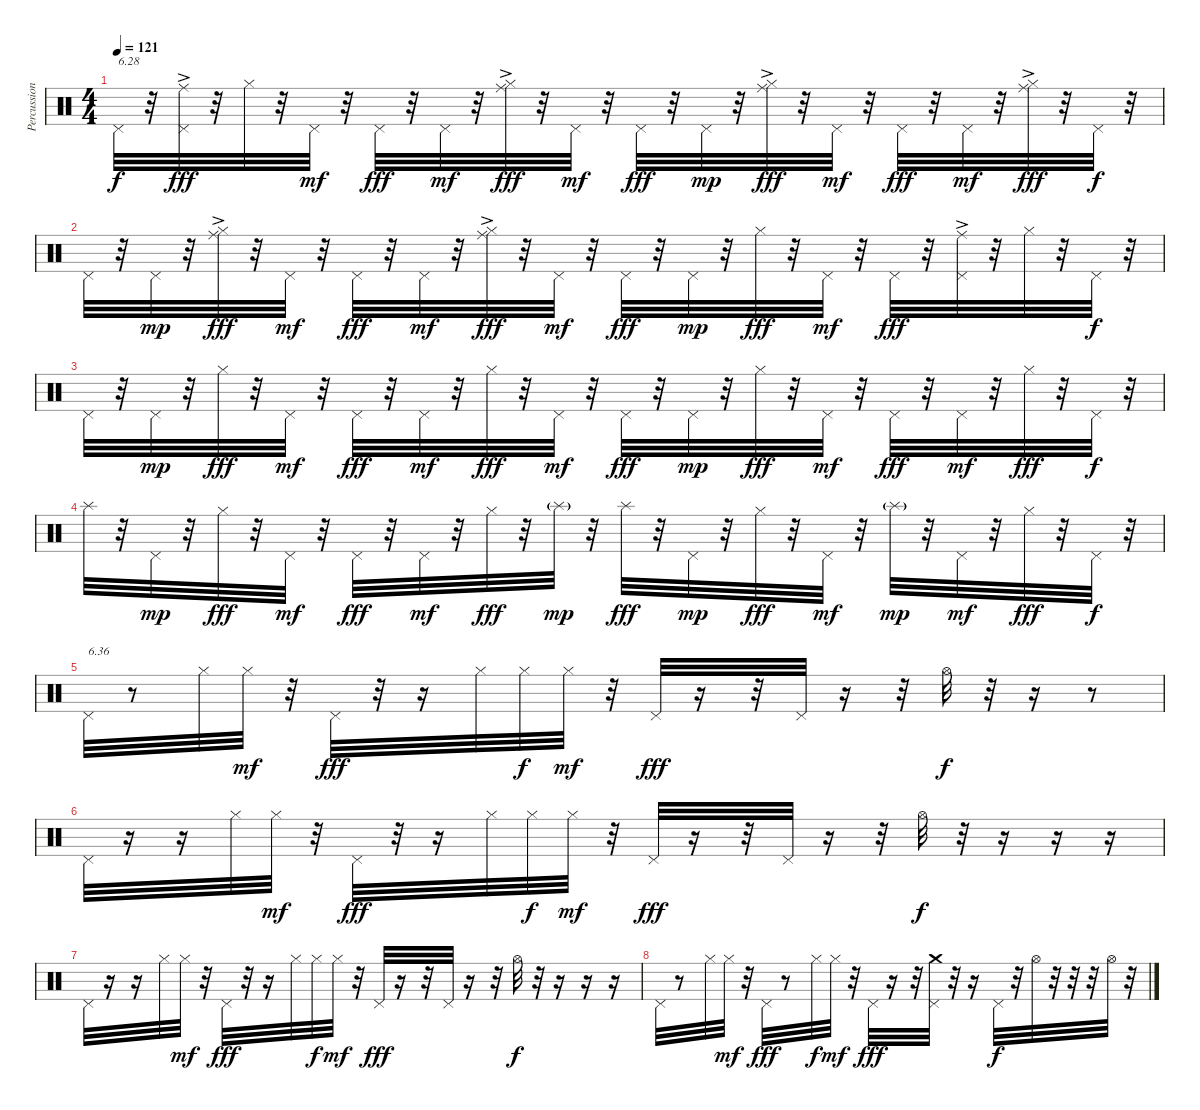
\track ("Percussions" "Percussion") {instrument percussion}
\staff {score}
\articulation defaults
\ts (4 4)
\tempo 121
\clef neutral
\ks c "Pedal Hi-Hat (hit)".32{txt "6.28" dy f}
r.32 ("Pedal Hi-Hat (hit)" "Ride (middle)"{ac}).32{dy fff} r.32 "Hi-Hat (closed)".32 r.32 "Pedal Hi-Hat (hit)".32{dy mf} r.32 "Pedal Hi-Hat (hit)".32{dy fff} r.32 "Pedal Hi-Hat (hit)".32{dy mf} r.32 ("Hi-Hat (closed)" "Ride (middle)"{ac}).32{dy fff} r.32 "Pedal Hi-Hat (hit)".32{dy mf} r.32 "Pedal Hi-Hat (hit)".32{dy fff} r.32 "Pedal Hi-Hat (hit)".32{dy mp} r.32 ("Hi-Hat (closed)" "Ride (middle)"{ac}).32{dy fff} r.32 "Pedal Hi-Hat (hit)".32{dy mf} r.32 "Pedal Hi-Hat (hit)".32{dy fff} r.32 "Pedal Hi-Hat (hit)".32{dy mf} r.32 ("Hi-Hat (closed)" "Ride (middle)"{ac}).32{dy fff} r.32 "Pedal Hi-Hat (hit)".32{dy f} r.32 |
"Pedal Hi-Hat (hit)".32 r.32 "Pedal Hi-Hat (hit)".32{dy mp} r.32 ("Hi-Hat (closed)" "Ride (middle)"{ac}).32{dy fff} r.32 "Pedal Hi-Hat (hit)".32{dy mf} r.32 "Pedal Hi-Hat (hit)".32{dy fff} r.32 "Pedal Hi-Hat (hit)".32{dy mf} r.32 ("Hi-Hat (closed)" "Ride (middle)"{ac}).32{dy fff} r.32 "Pedal Hi-Hat (hit)".32{dy mf} r.32 "Pedal Hi-Hat (hit)".32{dy fff} r.32 "Pedal Hi-Hat (hit)".32{dy mp} r.32 "Hi-Hat (closed)".32{dy fff} r.32 "Pedal Hi-Hat (hit)".32{dy mf} r.32 "Pedal Hi-Hat (hit)".32{dy fff} r.32 ("Pedal Hi-Hat (hit)" "Ride (middle)"{ac}).32 r.32 "Hi-Hat (closed)".32 r.32 "Pedal Hi-Hat (hit)".32{dy f} r.32 |
"Pedal Hi-Hat (hit)".32 r.32 "Pedal Hi-Hat (hit)".32{dy mp} r.32 "Hi-Hat (closed)".32{dy fff} r.32 "Pedal Hi-Hat (hit)".32{dy mf} r.32 "Pedal Hi-Hat (hit)".32{dy fff} r.32 "Pedal Hi-Hat (hit)".32{dy mf} r.32 "Hi-Hat (closed)".32{dy fff} r.32 "Pedal Hi-Hat (hit)".32{dy mf} r.32 "Pedal Hi-Hat (hit)".32{dy fff} r.32 "Pedal Hi-Hat (hit)".32{dy mp} r.32 "Hi-Hat (closed)".32{dy fff} r.32 "Pedal Hi-Hat (hit)".32{dy mf} r.32 "Pedal Hi-Hat (hit)".32{dy fff} r.32 "Pedal Hi-Hat (hit)".32{dy mf} r.32 "Hi-Hat (closed)".32{dy fff} r.32 "Pedal Hi-Hat (hit)".32{dy f} r.32 |
"Splash (hit)".32 r.32 "Pedal Hi-Hat (hit)".32{dy mp} r.32 "Hi-Hat (closed)".32{dy fff} r.32 "Pedal Hi-Hat (hit)".32{dy mf} r.32 "Pedal Hi-Hat (hit)".32{dy fff} r.32 "Pedal Hi-Hat (hit)".32{dy mf} r.32 "Hi-Hat (closed)".32{dy fff} r.32 "Splash (hit)"{g}.32{dy mp} r.32 "Splash (hit)".32{dy fff} r.32 "Pedal Hi-Hat (hit)".32{dy mp} r.32 "Hi-Hat (closed)".32{dy fff} r.32 "Pedal Hi-Hat (hit)".32{dy mf} r.32 "Splash (hit)"{g}.32{dy mp} r.32 "Pedal Hi-Hat (hit)".32{dy mf} r.32 "Hi-Hat (closed)".32{dy fff} r.32 "Pedal Hi-Hat (hit)".32{dy f} r.32 |
"Pedal Hi-Hat (hit)".32{txt "6.36"} r.8 "Hi-Hat (closed)".32 "Hi-Hat (closed)".32{dy mf} r.32 "Pedal Hi-Hat (hit)".32{dy fff} r.32 r.16 "Hi-Hat (closed)".32 "Hi-Hat (closed)".32{dy f} "Hi-Hat (closed)".32{dy mf} r.32 "Pedal Hi-Hat (hit)".32{dy fff} r.16 r.32 "Pedal Hi-Hat (hit)".32 r.16 r.32 "Hi-Hat (open)".32{dy f} r.32 r.16 r.8 |
"Pedal Hi-Hat (hit)".32 r.16 r.16 "Hi-Hat (closed)".32 "Hi-Hat (closed)".32{dy mf} r.32 "Pedal Hi-Hat (hit)".32{dy fff} r.32 r.16 "Hi-Hat (closed)".32 "Hi-Hat (closed)".32{dy f} "Hi-Hat (closed)".32{dy mf} r.32 "Pedal Hi-Hat (hit)".32{dy fff} r.16 r.32 "Pedal Hi-Hat (hit)".32 r.16 r.32 "Hi-Hat (open)".32{dy f} r.32 r.16 r.16 r.16 |
"Pedal Hi-Hat (hit)".32 r.16 r.16 "Hi-Hat (closed)".32 "Hi-Hat (closed)".32{dy mf} r.32 "Pedal Hi-Hat (hit)".32{dy fff} r.32 r.16 "Hi-Hat (closed)".32 "Hi-Hat (closed)".32{dy f} "Hi-Hat (closed)".32{dy mf} r.32 "Pedal Hi-Hat (hit)".32{dy fff} r.16 r.32 "Pedal Hi-Hat (hit)".32 r.16 r.32 "Hi-Hat (open)".32{dy f} r.32 r.16 r.16 r.16 |
"Pedal Hi-Hat (hit)".32 r.8 "Hi-Hat (closed)".32 "Hi-Hat (closed)".32{dy mf} r.32 "Pedal Hi-Hat (hit)".32{dy fff} r.8 "Hi-Hat (closed)".32{dy f} "Hi-Hat (closed)".32{dy mf} r.32 "Pedal Hi-Hat (hit)".32{dy fff} r.16 r.32 ("Pedal Hi-Hat (hit)" "Crash medium (hit)").32 r.32 r.16 "Pedal Hi-Hat (hit)".32{dy f} r.32 "Hi-Hat (open)".32 r.32 r.32 r.32 "Hi-Hat (open)".32 r.32
